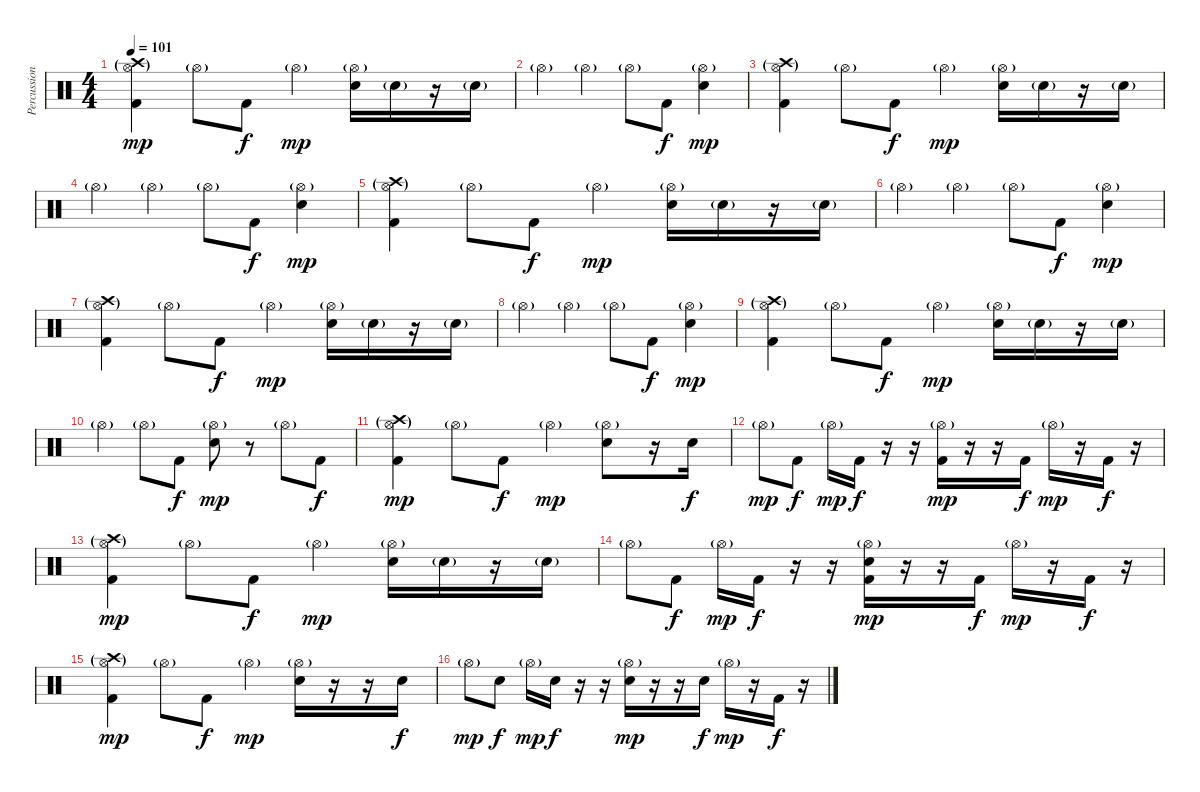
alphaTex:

\track ("Percussion" "Percussion") {instrument percussion}
\staff {score}
\articulation defaults
\ts (4 4)
\tempo 101
\clef neutral
\ks c
("Crash high (hit)"{g} "Hi-Hat (open)"{g} "Kick (hit) 2").4{dy mp} "Hi-Hat (open)"{g}.8 "Kick (hit) 2".8{dy f} "Hi-Hat (open)"{g}.4{dy mp} ("Electric Snare (hit)" "Hi-Hat (open)"{g}).16 "Electric Snare (hit)"{g}.16 r.16 "Electric Snare (hit)"{g}.16 |
"Hi-Hat (open)"{g}.4 "Hi-Hat (open)"{g}.4 "Hi-Hat (open)"{g}.8 "Kick (hit) 2".8{dy f} ("Electric Snare (hit)" "Hi-Hat (open)"{g}).4{dy mp} |
("Crash high (hit)"{g} "Hi-Hat (open)"{g} "Kick (hit) 2").4 "Hi-Hat (open)"{g}.8 "Kick (hit) 2".8{dy f} "Hi-Hat (open)"{g}.4{dy mp} ("Electric Snare (hit)" "Hi-Hat (open)"{g}).16 "Electric Snare (hit)"{g}.16 r.16 "Electric Snare (hit)"{g}.16 |
"Hi-Hat (open)"{g}.4 "Hi-Hat (open)"{g}.4 "Hi-Hat (open)"{g}.8 "Kick (hit) 2".8{dy f} ("Electric Snare (hit)" "Hi-Hat (open)"{g}).4{dy mp} |
("Crash high (hit)"{g} "Hi-Hat (open)"{g} "Kick (hit) 2").4 "Hi-Hat (open)"{g}.8 "Kick (hit) 2".8{dy f} "Hi-Hat (open)"{g}.4{dy mp} ("Electric Snare (hit)" "Hi-Hat (open)"{g}).16 "Electric Snare (hit)"{g}.16 r.16 "Electric Snare (hit)"{g}.16 |
"Hi-Hat (open)"{g}.4 "Hi-Hat (open)"{g}.4 "Hi-Hat (open)"{g}.8 "Kick (hit) 2".8{dy f} ("Electric Snare (hit)" "Hi-Hat (open)"{g}).4{dy mp} |
("Crash high (hit)"{g} "Hi-Hat (open)"{g} "Kick (hit) 2").4 "Hi-Hat (open)"{g}.8 "Kick (hit) 2".8{dy f} "Hi-Hat (open)"{g}.4{dy mp} ("Electric Snare (hit)" "Hi-Hat (open)"{g}).16 "Electric Snare (hit)"{g}.16 r.16 "Electric Snare (hit)"{g}.16 |
"Hi-Hat (open)"{g}.4 "Hi-Hat (open)"{g}.4 "Hi-Hat (open)"{g}.8 "Kick (hit) 2".8{dy f} ("Electric Snare (hit)" "Hi-Hat (open)"{g}).4{dy mp} |
("Crash high (hit)"{g} "Hi-Hat (open)"{g} "Kick (hit) 2").4 "Hi-Hat (open)"{g}.8 "Kick (hit) 2".8{dy f} "Hi-Hat (open)"{g}.4{dy mp} ("Electric Snare (hit)" "Hi-Hat (open)"{g}).16 "Electric Snare (hit)"{g}.16 r.16 "Electric Snare (hit)"{g}.16 |
"Hi-Hat (open)"{g}.4 "Hi-Hat (open)"{g}.8 "Kick (hit) 2".8{dy f} ("Electric Snare (hit)" "Hi-Hat (open)"{g}).8{dy mp} r.8 "Hi-Hat (open)"{g}.8 "Kick (hit) 2".8{dy f} |
("Crash high (hit)"{g} "Hi-Hat (open)"{g} "Kick (hit) 2").4{dy mp} "Hi-Hat (open)"{g}.8 "Kick (hit) 2".8{dy f} "Hi-Hat (open)"{g}.4{dy mp} ("Electric Snare (hit)" "Hi-Hat (open)"{g}).8 r.16 "Electric Snare (hit)".16{dy f} |
"Hi-Hat (open)"{g}.8{dy mp} "Kick (hit) 2".8{dy f} "Hi-Hat (open)"{g}.16{dy mp} "Kick (hit) 2".16{dy f} r.16 r.16 ("Hi-Hat (open)"{g} "Kick (hit) 2").16{dy mp} r.16 r.16 "Kick (hit) 2".16{dy f} "Hi-Hat (open)"{g}.16{dy mp} r.16 "Kick (hit) 2".16{dy f} r.16 |
("Crash high (hit)"{g} "Hi-Hat (open)"{g} "Kick (hit) 2").4{dy mp} "Hi-Hat (open)"{g}.8 "Kick (hit) 2".8{dy f} "Hi-Hat (open)"{g}.4{dy mp} ("Electric Snare (hit)" "Hi-Hat (open)"{g}).16 "Electric Snare (hit)"{g}.16 r.16 "Electric Snare (hit)"{g}.16 |
"Hi-Hat (open)"{g}.8 "Kick (hit) 2".8{dy f} "Hi-Hat (open)"{g}.16{dy mp} "Kick (hit) 2".16{dy f} r.16 r.16 ("Electric Snare (hit)" "Hi-Hat (open)"{g} "Kick (hit) 2").16{dy mp} r.16 r.16 "Kick (hit) 2".16{dy f} "Hi-Hat (open)"{g}.16{dy mp} r.16 "Kick (hit) 2".16{dy f} r.16 |
("Crash high (hit)"{g} "Hi-Hat (open)"{g} "Kick (hit) 2").4{dy mp} "Hi-Hat (open)"{g}.8 "Kick (hit) 2".8{dy f} "Hi-Hat (open)"{g}.4{dy mp} ("Electric Snare (hit)" "Hi-Hat (open)"{g}).16 r.16 r.16 "Electric Snare (hit)".16{dy f} |
"Hi-Hat (open)"{g}.8{dy mp} "Electric Snare (hit)".8{dy f} "Hi-Hat (open)"{g}.16{dy mp} "Electric Snare (hit)".16{dy f} r.16 r.16 ("Electric Snare (hit)" "Hi-Hat (open)"{g}).16{dy mp} r.16 r.16 "Electric Snare (hit)".16{dy f} "Hi-Hat (open)"{g}.16{dy mp} r.16 "Kick (hit) 2".16{dy f} r.16
